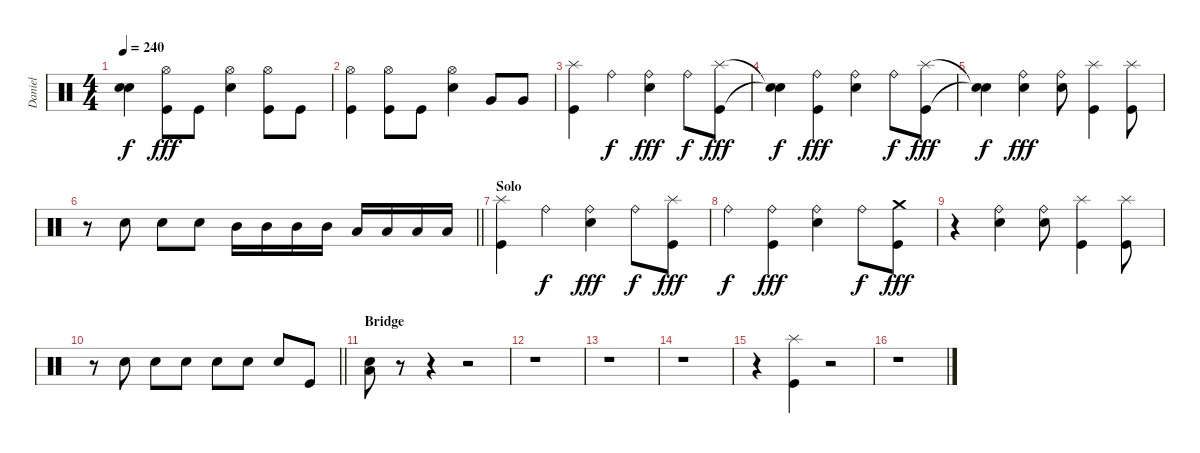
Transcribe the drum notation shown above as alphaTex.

\track ("Daniel" "Daniel") {instrument percussion}
\staff {score}
\articulation defaults
\ts (4 4)
\tempo 240
\clef neutral
\ks c
("Snare (hit)"{t} "Snare (hit)"{t}).4{dy f} ("Kick (hit)" "Hi-Hat (open)").8{dy fff} "Kick (hit)".8 ("Electric Snare (hit)" "Hi-Hat (open)").4 ("Kick (hit)" "Hi-Hat (open)").8 "Kick (hit)".8 |
("Kick (hit)" "Hi-Hat (open)").4 ("Kick (hit)" "Hi-Hat (open)").8 "Kick (hit)".8 ("Electric Snare (hit)" "Hi-Hat (open)").4 "Very Low Tom (hit)".8 "Very Low Tom (hit)".8 |
("Kick (hit)" "Splash (hit)").4 "Ride (bell)".4{dy f} ("Electric Snare (hit)" "Ride (bell)").4{dy fff} "Ride (bell)".8{dy f} ("Kick (hit)" "Splash (hit)").8{dy fff} |
("Snare (hit)"{t} "Snare (hit)"{t}).4{dy f} ("Kick (hit)" "Ride (bell)").4{dy fff} ("Electric Snare (hit)" "Ride (bell)").4 "Ride (bell)".8{dy f} ("Kick (hit)" "Splash (hit)").8{dy fff} |
("Snare (hit)"{t} "Snare (hit)"{t}).4{dy f} ("Electric Snare (hit)" "Ride (bell)").4{dy fff} ("Electric Snare (hit)" "Ride (bell)").8 ("Kick (hit)" "Splash (hit)").4 ("Kick (hit)" "Splash (hit)").8 |
\barLineRight lightlight
r.8 "Electric Snare (hit)".8 "Electric Snare (hit)".8 "Electric Snare (hit)".8 "Mid Tom (hit)".16 "Mid Tom (hit)".16 "Mid Tom (hit)".16 "Mid Tom (hit)".16 "Low Tom (hit)".16 "Low Tom (hit)".16 "Low Tom (hit)".16 "Low Tom (hit)".16 |
\section ("" "Solo")
("Kick (hit)" "Splash (hit)").4 "Ride (bell)".4{dy f} ("Electric Snare (hit)" "Ride (bell)").4{dy fff} "Ride (bell)".8{dy f} ("Kick (hit)" "Splash (hit)").8{dy fff} |
"Ride (bell)".4{dy f} ("Kick (hit)" "Ride (bell)").4{dy fff} ("Electric Snare (hit)" "Ride (bell)").4 "Ride (bell)".8{dy f} ("Kick (hit)" "Crash medium (hit)").8{dy fff} |
r.4 ("Electric Snare (hit)" "Ride (bell)").4 ("Electric Snare (hit)" "Ride (bell)").8 ("Kick (hit)" "Splash (hit)").4 ("Kick (hit)" "Splash (hit)").8 |
\barLineRight lightlight
r.8 "Electric Snare (hit)".8 "Electric Snare (hit)".8 "Electric Snare (hit)".8 "Electric Snare (hit)".8 "Electric Snare (hit)".8 "Electric Snare (hit)".8 "Kick (hit)".8 |
\section ("" "Bridge")
("Electric Snare (hit)" "Low Floor Tom (hit)").8 r.8 r.4 r.2 |
r.1 |
r.1 |
r.1 |
r.4 ("Kick (hit)" "Splash (hit)").4 r.2 |
r.1
